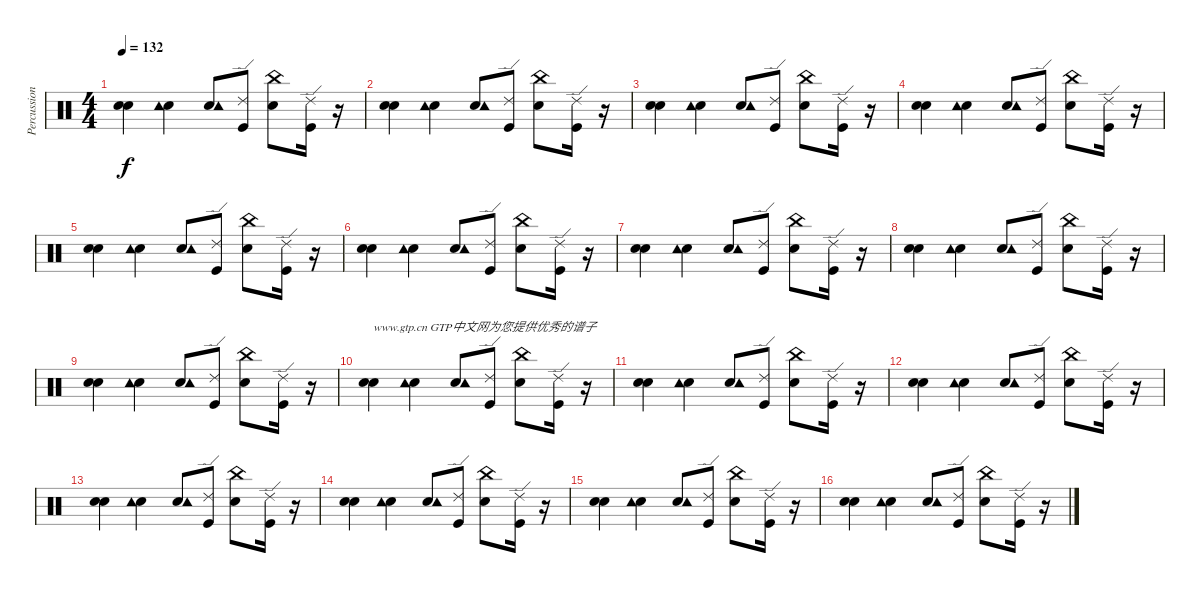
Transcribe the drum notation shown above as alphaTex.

\track ("Percussions (Reni)" "Percussion") {instrument percussion}
\staff {score}
\articulation defaults
\ts (4 4)
\tempo 132
\clef neutral
\ks c
("Snare (hit) 2" "Electric Snare (hit)").4{dy f} ("Snare (hit) 2" "Tambourine (hit)").4 ("Snare (hit) 2" "Tambourine (hit)").8 ("Kick (hit)" "Ride (edge) 2").8 ("Snare (hit) 2" "China (hit)").8 ("Kick (hit)" "Ride (edge) 2").16 r.16 |
("Snare (hit) 2" "Electric Snare (hit)").4 ("Snare (hit) 2" "Tambourine (hit)").4 ("Snare (hit) 2" "Tambourine (hit)").8 ("Kick (hit)" "Ride (edge) 2").8 ("Snare (hit) 2" "China (hit)").8 ("Kick (hit)" "Ride (edge) 2").16 r.16 |
("Snare (hit) 2" "Electric Snare (hit)").4 ("Snare (hit) 2" "Tambourine (hit)").4 ("Snare (hit) 2" "Tambourine (hit)").8 ("Kick (hit)" "Ride (edge) 2").8 ("Snare (hit) 2" "China (hit)").8 ("Kick (hit)" "Ride (edge) 2").16 r.16 |
("Snare (hit) 2" "Electric Snare (hit)").4 ("Snare (hit) 2" "Tambourine (hit)").4 ("Snare (hit) 2" "Tambourine (hit)").8 ("Kick (hit)" "Ride (edge) 2").8 ("Snare (hit) 2" "China (hit)").8 ("Kick (hit)" "Ride (edge) 2").16 r.16 |
("Snare (hit) 2" "Electric Snare (hit)").4 ("Snare (hit) 2" "Tambourine (hit)").4 ("Snare (hit) 2" "Tambourine (hit)").8 ("Kick (hit)" "Ride (edge) 2").8 ("Snare (hit) 2" "China (hit)").8 ("Kick (hit)" "Ride (edge) 2").16 r.16 |
("Snare (hit) 2" "Electric Snare (hit)").4 ("Snare (hit) 2" "Tambourine (hit)").4 ("Snare (hit) 2" "Tambourine (hit)").8 ("Kick (hit)" "Ride (edge) 2").8 ("Snare (hit) 2" "China (hit)").8 ("Kick (hit)" "Ride (edge) 2").16 r.16 |
("Snare (hit) 2" "Electric Snare (hit)").4 ("Snare (hit) 2" "Tambourine (hit)").4 ("Snare (hit) 2" "Tambourine (hit)").8 ("Kick (hit)" "Ride (edge) 2").8 ("Snare (hit) 2" "China (hit)").8 ("Kick (hit)" "Ride (edge) 2").16 r.16 |
("Snare (hit) 2" "Electric Snare (hit)").4 ("Snare (hit) 2" "Tambourine (hit)").4 ("Snare (hit) 2" "Tambourine (hit)").8 ("Kick (hit)" "Ride (edge) 2").8 ("Snare (hit) 2" "China (hit)").8 ("Kick (hit)" "Ride (edge) 2").16 r.16 |
("Snare (hit) 2" "Electric Snare (hit)").4 ("Snare (hit) 2" "Tambourine (hit)").4 ("Snare (hit) 2" "Tambourine (hit)").8 ("Kick (hit)" "Ride (edge) 2").8 ("Snare (hit) 2" "China (hit)").8 ("Kick (hit)" "Ride (edge) 2").16 r.16 |
("Snare (hit) 2" "Electric Snare (hit)").4{txt "www.gtp.cn GTP中文网为您提供优秀的谱子"} ("Snare (hit) 2" "Tambourine (hit)").4 ("Snare (hit) 2" "Tambourine (hit)").8 ("Kick (hit)" "Ride (edge) 2").8 ("Snare (hit) 2" "China (hit)").8 ("Kick (hit)" "Ride (edge) 2").16 r.16 |
("Snare (hit) 2" "Electric Snare (hit)").4 ("Snare (hit) 2" "Tambourine (hit)").4 ("Snare (hit) 2" "Tambourine (hit)").8 ("Kick (hit)" "Ride (edge) 2").8 ("Snare (hit) 2" "China (hit)").8 ("Kick (hit)" "Ride (edge) 2").16 r.16 |
("Snare (hit) 2" "Electric Snare (hit)").4 ("Snare (hit) 2" "Tambourine (hit)").4 ("Snare (hit) 2" "Tambourine (hit)").8 ("Kick (hit)" "Ride (edge) 2").8 ("Snare (hit) 2" "China (hit)").8 ("Kick (hit)" "Ride (edge) 2").16 r.16 |
("Snare (hit) 2" "Electric Snare (hit)").4 ("Snare (hit) 2" "Tambourine (hit)").4 ("Snare (hit) 2" "Tambourine (hit)").8 ("Kick (hit)" "Ride (edge) 2").8 ("Snare (hit) 2" "China (hit)").8 ("Kick (hit)" "Ride (edge) 2").16 r.16 |
("Snare (hit) 2" "Electric Snare (hit)").4 ("Snare (hit) 2" "Tambourine (hit)").4 ("Snare (hit) 2" "Tambourine (hit)").8 ("Kick (hit)" "Ride (edge) 2").8 ("Snare (hit) 2" "China (hit)").8 ("Kick (hit)" "Ride (edge) 2").16 r.16 |
("Snare (hit) 2" "Electric Snare (hit)").4 ("Snare (hit) 2" "Tambourine (hit)").4 ("Snare (hit) 2" "Tambourine (hit)").8 ("Kick (hit)" "Ride (edge) 2").8 ("Snare (hit) 2" "China (hit)").8 ("Kick (hit)" "Ride (edge) 2").16 r.16 |
("Snare (hit) 2" "Electric Snare (hit)").4 ("Snare (hit) 2" "Tambourine (hit)").4 ("Snare (hit) 2" "Tambourine (hit)").8 ("Kick (hit)" "Ride (edge) 2").8 ("Snare (hit) 2" "China (hit)").8 ("Kick (hit)" "Ride (edge) 2").16 r.16
